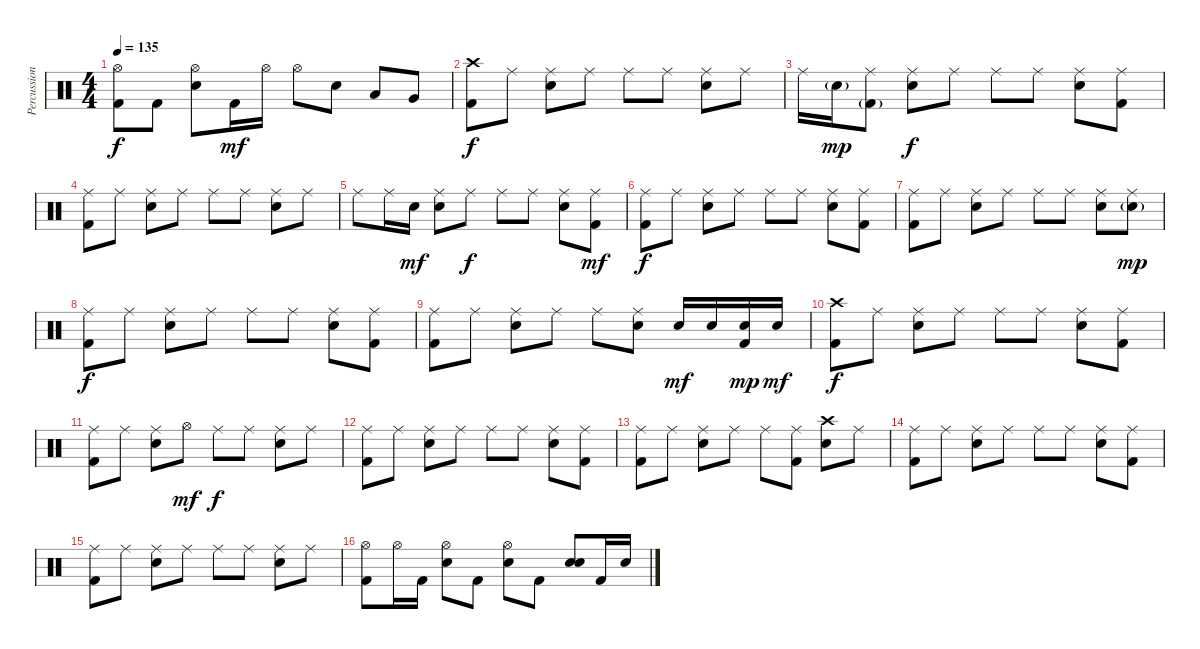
\track ("Percussions" "Percussion") {instrument percussion}
\staff {score}
\articulation defaults
\ts (4 4)
\tempo 135
\clef neutral
\ks c
("Hi-Hat (open)" "Kick (hit) 2").8{dy f} "Kick (hit) 2".8 ("Hi-Hat (open)" "Snare (hit) 2").8 "Kick (hit) 2".16{dy mf} "Hi-Hat (open)".16 "Hi-Hat (open)".8 "Snare (hit) 2".8 "Low Tom (hit)".8 "Very Low Tom (hit)".8 |
("Crash high (hit)" "Kick (hit) 2").8{dy f} "Ride (middle)".8 ("Ride (middle)" "Snare (hit) 2").8 "Ride (middle)".8 "Ride (middle)".8 "Ride (middle)".8 ("Ride (middle)" "Snare (hit) 2").8 "Ride (middle)".8 |
"Ride (middle)".16 "Snare (hit) 2"{g}.16{dy mp} ("Ride (middle)" "Kick (hit) 2"{g}).8 ("Ride (middle)" "Snare (hit) 2").8{dy f} "Ride (middle)".8 "Ride (middle)".8 "Ride (middle)".8 ("Ride (middle)" "Snare (hit) 2").8 ("Ride (middle)" "Kick (hit) 2").8 |
("Ride (middle)" "Kick (hit) 2").8 "Ride (middle)".8 ("Ride (middle)" "Snare (hit) 2").8 "Ride (middle)".8 "Ride (middle)".8 "Ride (middle)".8 ("Ride (middle)" "Snare (hit) 2").8 "Ride (middle)".8 |
"Ride (middle)".8 "Ride (middle)".16 "Snare (hit) 2".16{dy mf} ("Ride (middle)" "Snare (hit) 2").8 "Ride (middle)".8{dy f} "Ride (middle)".8 "Ride (middle)".8 ("Ride (middle)" "Snare (hit) 2").8 ("Ride (middle)" "Kick (hit) 2").8{dy mf} |
("Ride (middle)" "Kick (hit) 2").8{dy f} "Ride (middle)".8 ("Ride (middle)" "Snare (hit) 2").8 "Ride (middle)".8 "Ride (middle)".8 "Ride (middle)".8 ("Ride (middle)" "Snare (hit) 2").8 ("Ride (middle)" "Kick (hit) 2").8 |
("Ride (middle)" "Kick (hit) 2").8 "Ride (middle)".8 ("Ride (middle)" "Snare (hit) 2").8 "Ride (middle)".8 "Ride (middle)".8 "Ride (middle)".8 ("Ride (middle)" "Snare (hit) 2").8 ("Ride (middle)" "Snare (hit) 2"{g}).8{dy mp} |
("Ride (middle)" "Kick (hit) 2").8{dy f} "Ride (middle)".8 ("Ride (middle)" "Snare (hit) 2").8 "Ride (middle)".8 "Ride (middle)".8 "Ride (middle)".8 ("Ride (middle)" "Snare (hit) 2").8 ("Ride (middle)" "Kick (hit) 2").8 |
("Ride (middle)" "Kick (hit) 2").8 "Ride (middle)".8 ("Ride (middle)" "Snare (hit) 2").8 "Ride (middle)".8 "Ride (middle)".8 ("Ride (middle)" "Snare (hit) 2").8 "Snare (hit) 2".16{dy mf} "Snare (hit) 2".16 ("Snare (hit) 2" "Kick (hit) 2").16{dy mp} "Snare (hit) 2".16{dy mf} |
("Crash high (hit)" "Kick (hit) 2").8{dy f} "Ride (middle)".8 ("Ride (middle)" "Snare (hit) 2").8 "Ride (middle)".8 "Ride (middle)".8 "Ride (middle)".8 ("Ride (middle)" "Snare (hit) 2").8 ("Ride (middle)" "Kick (hit) 2").8 |
("Ride (middle)" "Kick (hit) 2").8 "Ride (middle)".8 ("Ride (middle)" "Snare (hit) 2").8 "Hi-Hat (open)".8{dy mf} "Ride (middle)".8{dy f} "Ride (middle)".8 ("Ride (middle)" "Snare (hit) 2").8 "Ride (middle)".8 |
("Ride (middle)" "Kick (hit) 2").8 "Ride (middle)".8 ("Ride (middle)" "Snare (hit) 2").8 "Ride (middle)".8 "Ride (middle)".8 "Ride (middle)".8 ("Ride (middle)" "Snare (hit) 2").8 ("Ride (middle)" "Kick (hit) 2").8 |
("Ride (middle)" "Kick (hit) 2").8 "Ride (middle)".8 ("Ride (middle)" "Snare (hit) 2").8 "Ride (middle)".8 "Ride (middle)".8 ("Ride (middle)" "Kick (hit) 2").8 ("Crash high (hit)" "Snare (hit) 2").8 "Ride (middle)".8 |
("Ride (middle)" "Kick (hit) 2").8 "Ride (middle)".8 ("Ride (middle)" "Snare (hit) 2").8 "Ride (middle)".8 "Ride (middle)".8 "Ride (middle)".8 ("Ride (middle)" "Snare (hit) 2").8 ("Ride (middle)" "Kick (hit) 2").8 |
("Ride (middle)" "Kick (hit) 2").8 "Ride (middle)".8 ("Ride (middle)" "Snare (hit) 2").8 "Ride (middle)".8 "Ride (middle)".8 "Ride (middle)".8 ("Ride (middle)" "Snare (hit) 2").8 "Ride (middle)".8 |
("Hi-Hat (open)" "Kick (hit) 2").8 "Hi-Hat (open)".16 "Kick (hit) 2".16 ("Hi-Hat (open)" "Snare (hit) 2").8 "Kick (hit) 2".8 ("Hi-Hat (open)" "Snare (hit) 2").8 "Kick (hit) 2".8 ("Snare (hit) 2" "Snare (hit) 2").8{bd 240} "Kick (hit) 2".16 "Snare (hit) 2".16
